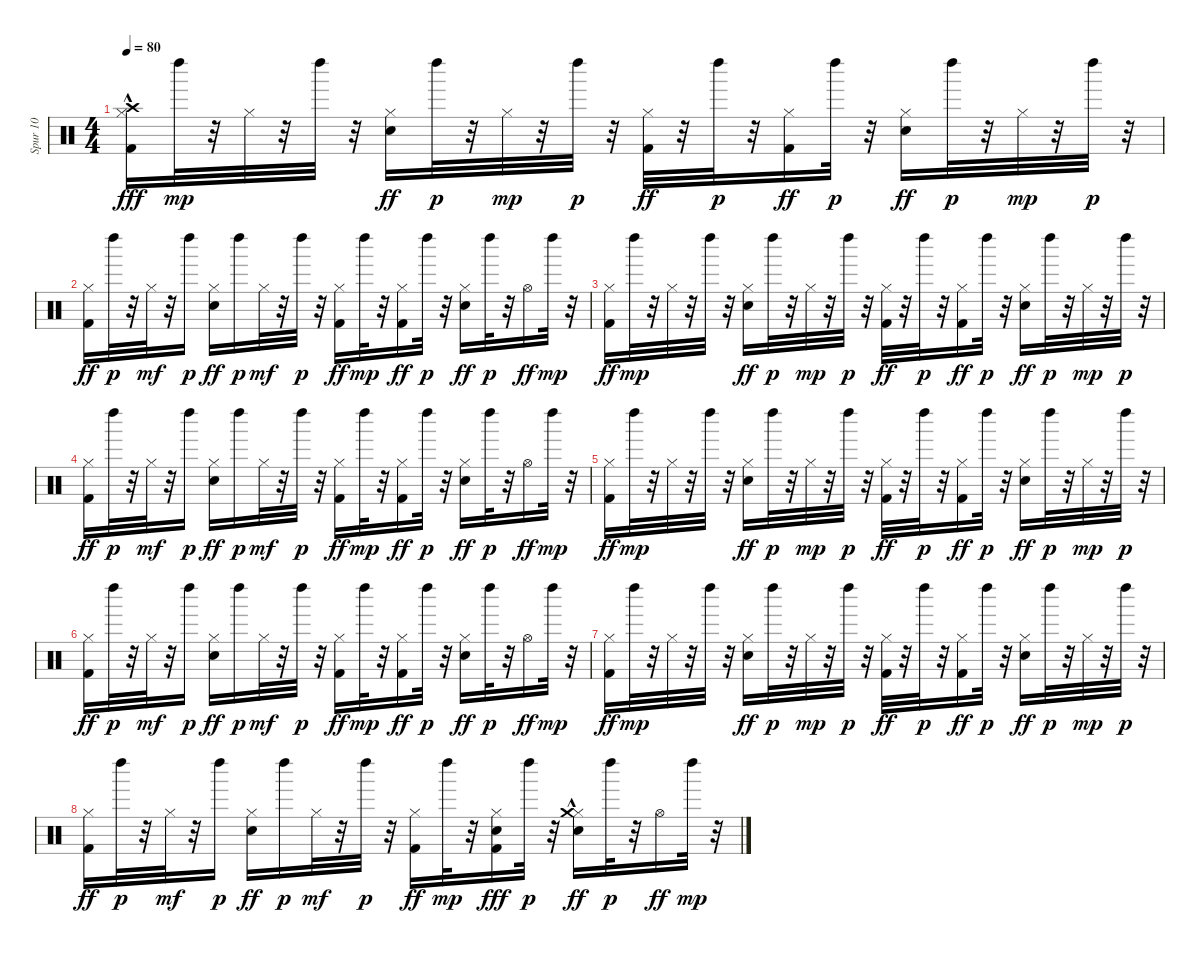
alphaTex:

\track ("Spur 10" "Spur 10") {instrument percussion}
\staff {score}
\articulation defaults
\ts (4 4)
\tempo 80
\clef neutral
\ks c
("Hi-Hat (closed)" "Kick (hit) 2" "Crash high (hit)"{hac}).16{dy fff} "Left Maraca (hit)".32{dy mp} r.32 "Hi-Hat (closed)".32 r.32 "Left Maraca (hit)".32 r.32 ("Electric Snare (hit)" "Hi-Hat (closed)").16{dy ff} "Left Maraca (hit)".32{dy p} r.32 "Hi-Hat (closed)".32{dy mp} r.32 "Left Maraca (hit)".32{dy p} r.32 ("Hi-Hat (closed)" "Kick (hit) 2").32{dy ff} r.32 "Left Maraca (hit)".32{dy p} r.32 ("Hi-Hat (closed)" "Kick (hit) 2").16{dy ff} "Left Maraca (hit)".32{dy p} r.32 ("Electric Snare (hit)" "Hi-Hat (closed)").16{dy ff} "Left Maraca (hit)".32{dy p} r.32 "Hi-Hat (closed)".32{dy mp} r.32 "Left Maraca (hit)".32{dy p} r.32 |
("Hi-Hat (closed)" "Kick (hit) 2").16{dy ff} "Left Maraca (hit)".32{dy p} r.32 "Hi-Hat (closed)".32{dy mf} r.32 "Left Maraca (hit)".16{dy p} ("Electric Snare (hit)" "Hi-Hat (closed)").16{dy ff} "Left Maraca (hit)".16{dy p} "Hi-Hat (closed)".32{dy mf} r.32 "Left Maraca (hit)".32{dy p} r.32 ("Hi-Hat (closed)" "Kick (hit) 2").16{dy ff} "Left Maraca (hit)".32{dy mp} r.32 ("Hi-Hat (closed)" "Kick (hit) 2").16{dy ff} "Left Maraca (hit)".32{dy p} r.32 ("Electric Snare (hit)" "Hi-Hat (closed)").16{dy ff} "Left Maraca (hit)".32{dy p} r.32 "Hi-Hat (open)".16{dy ff} "Left Maraca (hit)".32{dy mp} r.32 |
("Hi-Hat (closed)" "Kick (hit) 2").16{dy ff} "Left Maraca (hit)".32{dy mp} r.32 "Hi-Hat (closed)".32 r.32 "Left Maraca (hit)".32 r.32 ("Electric Snare (hit)" "Hi-Hat (closed)").16{dy ff} "Left Maraca (hit)".32{dy p} r.32 "Hi-Hat (closed)".32{dy mp} r.32 "Left Maraca (hit)".32{dy p} r.32 ("Hi-Hat (closed)" "Kick (hit) 2").32{dy ff} r.32 "Left Maraca (hit)".32{dy p} r.32 ("Hi-Hat (closed)" "Kick (hit) 2").16{dy ff} "Left Maraca (hit)".32{dy p} r.32 ("Electric Snare (hit)" "Hi-Hat (closed)").16{dy ff} "Left Maraca (hit)".32{dy p} r.32 "Hi-Hat (closed)".32{dy mp} r.32 "Left Maraca (hit)".32{dy p} r.32 |
("Hi-Hat (closed)" "Kick (hit) 2").16{dy ff} "Left Maraca (hit)".32{dy p} r.32 "Hi-Hat (closed)".32{dy mf} r.32 "Left Maraca (hit)".16{dy p} ("Electric Snare (hit)" "Hi-Hat (closed)").16{dy ff} "Left Maraca (hit)".16{dy p} "Hi-Hat (closed)".32{dy mf} r.32 "Left Maraca (hit)".32{dy p} r.32 ("Hi-Hat (closed)" "Kick (hit) 2").16{dy ff} "Left Maraca (hit)".32{dy mp} r.32 ("Hi-Hat (closed)" "Kick (hit) 2").16{dy ff} "Left Maraca (hit)".32{dy p} r.32 ("Electric Snare (hit)" "Hi-Hat (closed)").16{dy ff} "Left Maraca (hit)".32{dy p} r.32 "Hi-Hat (open)".16{dy ff} "Left Maraca (hit)".32{dy mp} r.32 |
("Hi-Hat (closed)" "Kick (hit) 2").16{dy ff} "Left Maraca (hit)".32{dy mp} r.32 "Hi-Hat (closed)".32 r.32 "Left Maraca (hit)".32 r.32 ("Electric Snare (hit)" "Hi-Hat (closed)").16{dy ff} "Left Maraca (hit)".32{dy p} r.32 "Hi-Hat (closed)".32{dy mp} r.32 "Left Maraca (hit)".32{dy p} r.32 ("Hi-Hat (closed)" "Kick (hit) 2").32{dy ff} r.32 "Left Maraca (hit)".32{dy p} r.32 ("Hi-Hat (closed)" "Kick (hit) 2").16{dy ff} "Left Maraca (hit)".32{dy p} r.32 ("Electric Snare (hit)" "Hi-Hat (closed)").16{dy ff} "Left Maraca (hit)".32{dy p} r.32 "Hi-Hat (closed)".32{dy mp} r.32 "Left Maraca (hit)".32{dy p} r.32 |
("Hi-Hat (closed)" "Kick (hit) 2").16{dy ff} "Left Maraca (hit)".32{dy p} r.32 "Hi-Hat (closed)".32{dy mf} r.32 "Left Maraca (hit)".16{dy p} ("Electric Snare (hit)" "Hi-Hat (closed)").16{dy ff} "Left Maraca (hit)".16{dy p} "Hi-Hat (closed)".32{dy mf} r.32 "Left Maraca (hit)".32{dy p} r.32 ("Hi-Hat (closed)" "Kick (hit) 2").16{dy ff} "Left Maraca (hit)".32{dy mp} r.32 ("Hi-Hat (closed)" "Kick (hit) 2").16{dy ff} "Left Maraca (hit)".32{dy p} r.32 ("Electric Snare (hit)" "Hi-Hat (closed)").16{dy ff} "Left Maraca (hit)".32{dy p} r.32 "Hi-Hat (open)".16{dy ff} "Left Maraca (hit)".32{dy mp} r.32 |
("Hi-Hat (closed)" "Kick (hit) 2").16{dy ff} "Left Maraca (hit)".32{dy mp} r.32 "Hi-Hat (closed)".32 r.32 "Left Maraca (hit)".32 r.32 ("Electric Snare (hit)" "Hi-Hat (closed)").16{dy ff} "Left Maraca (hit)".32{dy p} r.32 "Hi-Hat (closed)".32{dy mp} r.32 "Left Maraca (hit)".32{dy p} r.32 ("Hi-Hat (closed)" "Kick (hit) 2").32{dy ff} r.32 "Left Maraca (hit)".32{dy p} r.32 ("Hi-Hat (closed)" "Kick (hit) 2").16{dy ff} "Left Maraca (hit)".32{dy p} r.32 ("Electric Snare (hit)" "Hi-Hat (closed)").16{dy ff} "Left Maraca (hit)".32{dy p} r.32 "Hi-Hat (closed)".32{dy mp} r.32 "Left Maraca (hit)".32{dy p} r.32 |
("Hi-Hat (closed)" "Kick (hit) 2").16{dy ff} "Left Maraca (hit)".32{dy p} r.32 "Hi-Hat (closed)".32{dy mf} r.32 "Left Maraca (hit)".16{dy p} ("Electric Snare (hit)" "Hi-Hat (closed)").16{dy ff} "Left Maraca (hit)".16{dy p} "Hi-Hat (closed)".32{dy mf} r.32 "Left Maraca (hit)".32{dy p} r.32 ("Hi-Hat (closed)" "Kick (hit) 2").16{dy ff} "Left Maraca (hit)".32{dy mp} r.32 ("Hi-Hat (closed)" "Kick (hit) 2" "Electric Snare (hit)").16{dy fff} "Left Maraca (hit)".32{dy p} r.32 ("Electric Snare (hit)" "Hi-Hat (closed)" "Crash medium (hit)"{hac}).16{dy ff} "Left Maraca (hit)".32{dy p} r.32 "Hi-Hat (open)".16{dy ff} "Left Maraca (hit)".32{dy mp} r.32
